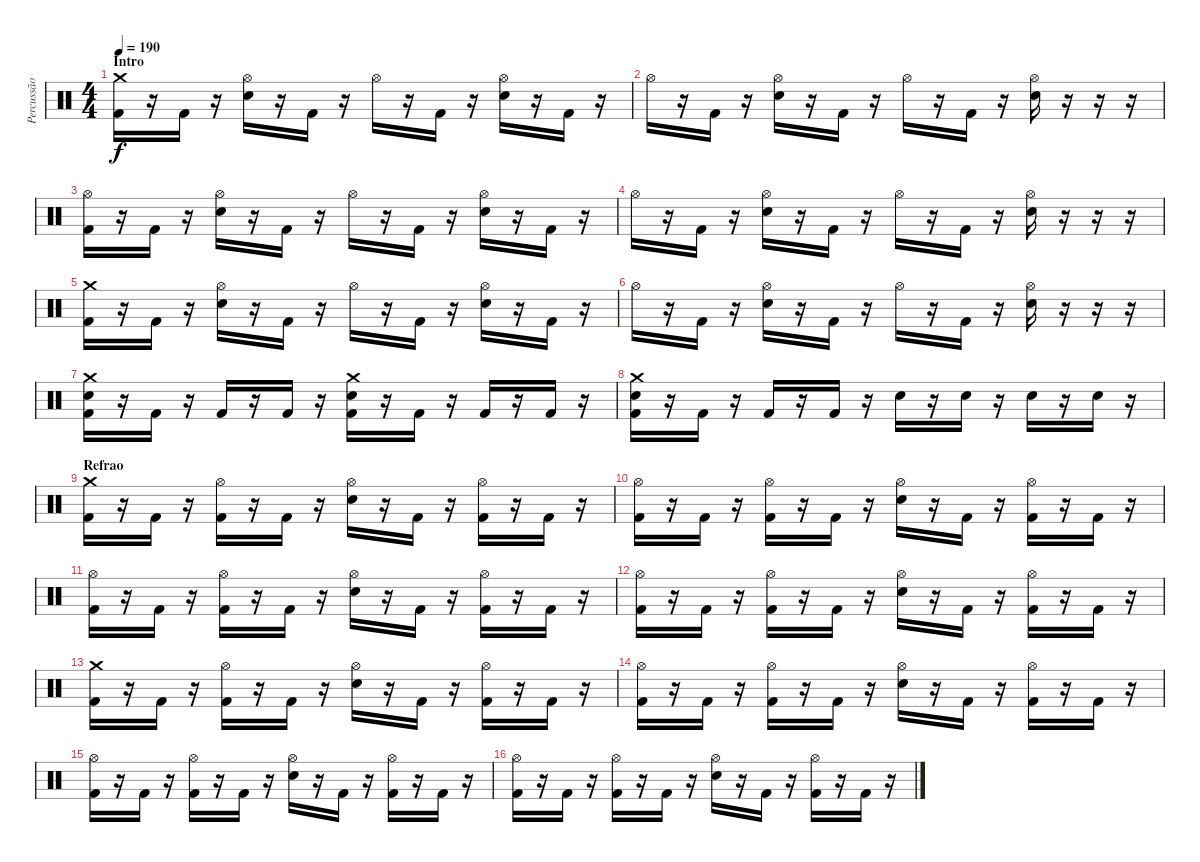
\track ("Percussão" "Percussão") {instrument percussion}
\staff {score}
\articulation defaults
\ts (4 4)
\section ("" "Intro")
\tempo 190
\clef neutral
\ks c
("Crash medium (hit)" "Kick (hit) 2").16{dy f} r.16 "Kick (hit) 2".16 r.16 ("Hi-Hat (open)" "Electric Snare (hit)").16 r.16 "Kick (hit) 2".16 r.16 "Hi-Hat (open)".16 r.16 "Kick (hit) 2".16 r.16 ("Hi-Hat (open)" "Electric Snare (hit)").16 r.16 "Kick (hit) 2".16 r.16 |
"Hi-Hat (open)".16 r.16 "Kick (hit) 2".16 r.16 ("Hi-Hat (open)" "Electric Snare (hit)").16 r.16 "Kick (hit) 2".16 r.16 "Hi-Hat (open)".16 r.16 "Kick (hit) 2".16 r.16 ("Hi-Hat (open)" "Electric Snare (hit)").16 r.16 r.16 r.16 |
("Hi-Hat (open)" "Kick (hit) 2").16 r.16 "Kick (hit) 2".16 r.16 ("Hi-Hat (open)" "Electric Snare (hit)").16 r.16 "Kick (hit) 2".16 r.16 "Hi-Hat (open)".16 r.16 "Kick (hit) 2".16 r.16 ("Hi-Hat (open)" "Electric Snare (hit)").16 r.16 "Kick (hit) 2".16 r.16 |
"Hi-Hat (open)".16 r.16 "Kick (hit) 2".16 r.16 ("Hi-Hat (open)" "Electric Snare (hit)").16 r.16 "Kick (hit) 2".16 r.16 "Hi-Hat (open)".16 r.16 "Kick (hit) 2".16 r.16 ("Hi-Hat (open)" "Electric Snare (hit)").16 r.16 r.16 r.16 |
("Crash medium (hit)" "Kick (hit) 2").16 r.16 "Kick (hit) 2".16 r.16 ("Hi-Hat (open)" "Electric Snare (hit)").16 r.16 "Kick (hit) 2".16 r.16 "Hi-Hat (open)".16 r.16 "Kick (hit) 2".16 r.16 ("Hi-Hat (open)" "Electric Snare (hit)").16 r.16 "Kick (hit) 2".16 r.16 |
"Hi-Hat (open)".16 r.16 "Kick (hit) 2".16 r.16 ("Hi-Hat (open)" "Electric Snare (hit)").16 r.16 "Kick (hit) 2".16 r.16 "Hi-Hat (open)".16 r.16 "Kick (hit) 2".16 r.16 ("Hi-Hat (open)" "Electric Snare (hit)").16 r.16 r.16 r.16 |
("Crash medium (hit)" "Electric Snare (hit)" "Kick (hit) 2").16 r.16 "Kick (hit) 2".16 r.16 "Kick (hit) 2".16 r.16 "Kick (hit) 2".16 r.16 ("Crash medium (hit)" "Electric Snare (hit)" "Kick (hit) 2").16 r.16 "Kick (hit) 2".16 r.16 "Kick (hit) 2".16 r.16 "Kick (hit) 2".16 r.16 |
("Crash medium (hit)" "Electric Snare (hit)" "Kick (hit) 2").16 r.16 "Kick (hit) 2".16 r.16 "Kick (hit) 2".16 r.16 "Kick (hit) 2".16 r.16 "Electric Snare (hit)".16 r.16 "Electric Snare (hit)".16 r.16 "Electric Snare (hit)".16 r.16 "Electric Snare (hit)".16 r.16 |
\section ("" "Refrao")
("Crash medium (hit)" "Kick (hit) 2").16 r.16 "Kick (hit) 2".16 r.16 ("Hi-Hat (open)" "Kick (hit) 2").16 r.16 "Kick (hit) 2".16 r.16 ("Hi-Hat (open)" "Electric Snare (hit)").16 r.16 "Kick (hit) 2".16 r.16 ("Hi-Hat (open)" "Kick (hit) 2").16 r.16 "Kick (hit) 2".16 r.16 |
("Hi-Hat (open)" "Kick (hit) 2").16 r.16 "Kick (hit) 2".16 r.16 ("Hi-Hat (open)" "Kick (hit) 2").16 r.16 "Kick (hit) 2".16 r.16 ("Hi-Hat (open)" "Electric Snare (hit)").16 r.16 "Kick (hit) 2".16 r.16 ("Hi-Hat (open)" "Kick (hit) 2").16 r.16 "Kick (hit) 2".16 r.16 |
("Hi-Hat (open)" "Kick (hit) 2").16 r.16 "Kick (hit) 2".16 r.16 ("Hi-Hat (open)" "Kick (hit) 2").16 r.16 "Kick (hit) 2".16 r.16 ("Hi-Hat (open)" "Electric Snare (hit)").16 r.16 "Kick (hit) 2".16 r.16 ("Hi-Hat (open)" "Kick (hit) 2").16 r.16 "Kick (hit) 2".16 r.16 |
("Hi-Hat (open)" "Kick (hit) 2").16 r.16 "Kick (hit) 2".16 r.16 ("Hi-Hat (open)" "Kick (hit) 2").16 r.16 "Kick (hit) 2".16 r.16 ("Hi-Hat (open)" "Electric Snare (hit)").16 r.16 "Kick (hit) 2".16 r.16 ("Hi-Hat (open)" "Kick (hit) 2").16 r.16 "Kick (hit) 2".16 r.16 |
("Crash medium (hit)" "Kick (hit) 2").16 r.16 "Kick (hit) 2".16 r.16 ("Hi-Hat (open)" "Kick (hit) 2").16 r.16 "Kick (hit) 2".16 r.16 ("Hi-Hat (open)" "Electric Snare (hit)").16 r.16 "Kick (hit) 2".16 r.16 ("Hi-Hat (open)" "Kick (hit) 2").16 r.16 "Kick (hit) 2".16 r.16 |
("Hi-Hat (open)" "Kick (hit) 2").16 r.16 "Kick (hit) 2".16 r.16 ("Hi-Hat (open)" "Kick (hit) 2").16 r.16 "Kick (hit) 2".16 r.16 ("Hi-Hat (open)" "Electric Snare (hit)").16 r.16 "Kick (hit) 2".16 r.16 ("Hi-Hat (open)" "Kick (hit) 2").16 r.16 "Kick (hit) 2".16 r.16 |
("Hi-Hat (open)" "Kick (hit) 2").16 r.16 "Kick (hit) 2".16 r.16 ("Hi-Hat (open)" "Kick (hit) 2").16 r.16 "Kick (hit) 2".16 r.16 ("Hi-Hat (open)" "Electric Snare (hit)").16 r.16 "Kick (hit) 2".16 r.16 ("Hi-Hat (open)" "Kick (hit) 2").16 r.16 "Kick (hit) 2".16 r.16 |
("Hi-Hat (open)" "Kick (hit) 2").16 r.16 "Kick (hit) 2".16 r.16 ("Hi-Hat (open)" "Kick (hit) 2").16 r.16 "Kick (hit) 2".16 r.16 ("Hi-Hat (open)" "Electric Snare (hit)").16 r.16 "Kick (hit) 2".16 r.16 ("Hi-Hat (open)" "Kick (hit) 2").16 r.16 "Kick (hit) 2".16 r.16
